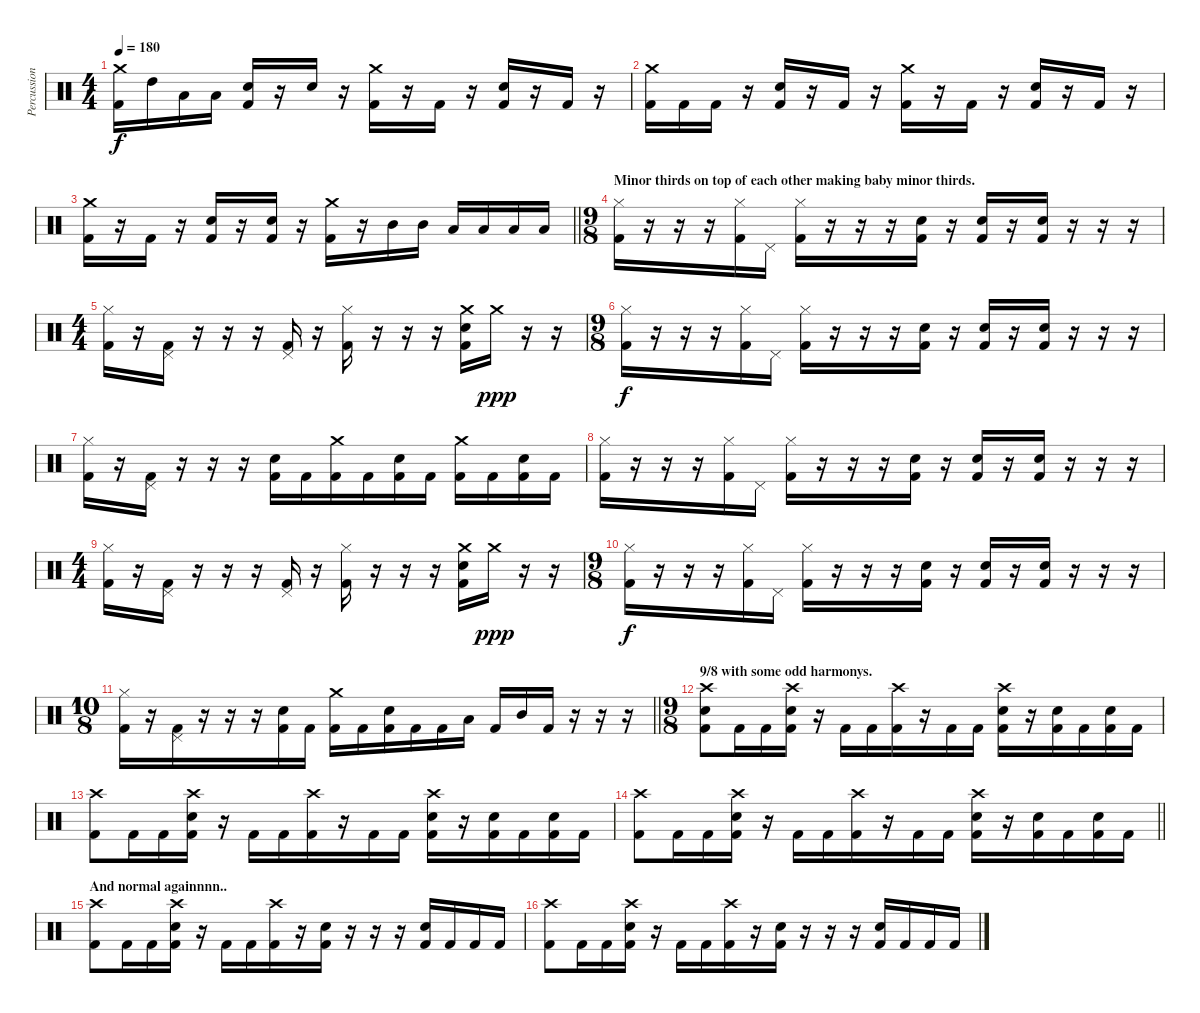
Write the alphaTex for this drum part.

\track ("Percussion" "Percussion") {instrument percussion}
\staff {score}
\articulation defaults
\ts (4 4)
\tempo 180
\clef neutral
\ks c
("Crash medium (hit)" "Kick (hit) 2").16{dy f} "High Tom (hit)".16 "Low Tom (hit)".16 "Low Floor Tom (hit)".16 ("Electric Snare (hit)" "Kick (hit) 2").16 r.16 "Electric Snare (hit)".16 r.16 ("Crash medium (hit)" "Kick (hit) 2").16 r.16 "Kick (hit) 2".16 r.16 ("Electric Snare (hit)" "Kick (hit) 2").16 r.16 "Kick (hit) 2".16 r.16 |
("Crash medium (hit)" "Kick (hit) 2").16 "Kick (hit) 2".16 "Kick (hit) 2".16 r.16 ("Electric Snare (hit)" "Kick (hit) 2").16 r.16 "Kick (hit) 2".16 r.16 ("Crash medium (hit)" "Kick (hit) 2").16 r.16 "Kick (hit) 2".16 r.16 ("Electric Snare (hit)" "Kick (hit) 2").16 r.16 "Kick (hit) 2".16 r.16 |
\barLineRight lightlight
("Crash medium (hit)" "Kick (hit) 2").16 r.16 "Kick (hit) 2".16 r.16 ("Electric Snare (hit)" "Kick (hit) 2").16 r.16 ("Electric Snare (hit)" "Kick (hit) 2").16 r.16 ("Crash medium (hit)" "Kick (hit) 2").16 r.16 "Mid Tom (hit)".16 "Mid Tom (hit)".16 "Low Tom (hit)".16 "Low Tom (hit)".16 "Low Floor Tom (hit)".16 "Low Floor Tom (hit)".16 |
\ts (9 8)
\section ("" "Minor thirds on top of each other making baby minor thirds.")
("Hi-Hat (closed)" "Kick (hit) 2").16 r.16 r.16 r.16 ("Hi-Hat (closed)" "Kick (hit) 2").16 "Pedal Hi-Hat (hit)".16 ("Hi-Hat (closed)" "Kick (hit) 2").16 r.16 r.16 r.16 ("Electric Snare (hit)" "Kick (hit) 2").16 r.16 ("Electric Snare (hit)" "Kick (hit) 2").16 r.16 ("Electric Snare (hit)" "Kick (hit) 2").16 r.16 r.16 r.16 |
\ts (4 4)
("Hi-Hat (closed)" "Kick (hit) 2").16 r.16 ("Pedal Hi-Hat (hit)" "Kick (hit) 2").16 r.16 r.16 r.16 ("Pedal Hi-Hat (hit)" "Kick (hit) 2").16 r.16 ("Hi-Hat (closed)" "Kick (hit) 2").16 r.16 r.16 r.16 ("Crash medium (hit)" "Electric Snare (hit)" "Kick (hit) 2").16 "Crash medium (hit)".16{dy ppp} r.16 r.16 |
\ts (9 8)
("Hi-Hat (closed)" "Kick (hit) 2").16{dy f} r.16 r.16 r.16 ("Hi-Hat (closed)" "Kick (hit) 2").16 "Pedal Hi-Hat (hit)".16 ("Hi-Hat (closed)" "Kick (hit) 2").16 r.16 r.16 r.16 ("Electric Snare (hit)" "Kick (hit) 2").16 r.16 ("Electric Snare (hit)" "Kick (hit) 2").16 r.16 ("Electric Snare (hit)" "Kick (hit) 2").16 r.16 r.16 r.16 |
("Hi-Hat (closed)" "Kick (hit) 2").16 r.16 ("Pedal Hi-Hat (hit)" "Kick (hit) 2").16 r.16 r.16 r.16 ("Electric Snare (hit)" "Kick (hit) 2").16 "Kick (hit) 2".16 ("Crash medium (hit)" "Kick (hit) 2").16 "Kick (hit) 2".16 ("Electric Snare (hit)" "Kick (hit) 2").16 "Kick (hit) 2".16 ("Crash medium (hit)" "Kick (hit) 2").16 "Kick (hit) 2".16 ("Electric Snare (hit)" "Kick (hit) 2").16 "Kick (hit) 2".16 |
("Hi-Hat (closed)" "Kick (hit) 2").16 r.16 r.16 r.16 ("Hi-Hat (closed)" "Kick (hit) 2").16 "Pedal Hi-Hat (hit)".16 ("Hi-Hat (closed)" "Kick (hit) 2").16 r.16 r.16 r.16 ("Electric Snare (hit)" "Kick (hit) 2").16 r.16 ("Electric Snare (hit)" "Kick (hit) 2").16 r.16 ("Electric Snare (hit)" "Kick (hit) 2").16 r.16 r.16 r.16 |
\ts (4 4)
("Hi-Hat (closed)" "Kick (hit) 2").16 r.16 ("Pedal Hi-Hat (hit)" "Kick (hit) 2").16 r.16 r.16 r.16 ("Pedal Hi-Hat (hit)" "Kick (hit) 2").16 r.16 ("Hi-Hat (closed)" "Kick (hit) 2").16 r.16 r.16 r.16 ("Crash medium (hit)" "Electric Snare (hit)" "Kick (hit) 2").16 "Crash medium (hit)".16{dy ppp} r.16 r.16 |
\ts (9 8)
("Hi-Hat (closed)" "Kick (hit) 2").16{dy f} r.16 r.16 r.16 ("Hi-Hat (closed)" "Kick (hit) 2").16 "Pedal Hi-Hat (hit)".16 ("Hi-Hat (closed)" "Kick (hit) 2").16 r.16 r.16 r.16 ("Electric Snare (hit)" "Kick (hit) 2").16 r.16 ("Electric Snare (hit)" "Kick (hit) 2").16 r.16 ("Electric Snare (hit)" "Kick (hit) 2").16 r.16 r.16 r.16 |
\ts (10 8)
\barLineRight lightlight
("Hi-Hat (closed)" "Kick (hit) 2").16 r.16 ("Pedal Hi-Hat (hit)" "Kick (hit) 2").16 r.16 r.16 r.16 ("Electric Snare (hit)" "Kick (hit) 2").16 "Kick (hit) 2".16 ("Crash medium (hit)" "Kick (hit) 2").16 "Kick (hit) 2".16 ("Electric Snare (hit)" "Kick (hit) 2").16 "Kick (hit) 2".16 "Kick (hit) 2".16 "Low Floor Tom (hit)".16 "Kick (hit) 2".16 "Mid Tom (hit)".16 "Kick (hit) 2".16 r.16 r.16 r.16 |
\ts (9 8)
\section ("" "9/8 with some odd harmonys.")
("Crash high (hit)" "Electric Snare (hit)" "Kick (hit) 2").8 "Kick (hit) 2".16 "Kick (hit) 2".16 ("Crash high (hit)" "Electric Snare (hit)" "Kick (hit) 2").16 r.16 "Kick (hit) 2".16 "Kick (hit) 2".16 ("Crash high (hit)" "Kick (hit) 2").16 r.16 "Kick (hit) 2".16 "Kick (hit) 2".16 ("Crash high (hit)" "Electric Snare (hit)" "Kick (hit) 2").16 r.16 ("Electric Snare (hit)" "Kick (hit) 2").16 "Kick (hit) 2".16 ("Electric Snare (hit)" "Kick (hit) 2").16 "Kick (hit) 2".16 |
("Crash high (hit)" "Kick (hit) 2").8 "Kick (hit) 2".16 "Kick (hit) 2".16 ("Crash high (hit)" "Electric Snare (hit)" "Kick (hit) 2").16 r.16 "Kick (hit) 2".16 "Kick (hit) 2".16 ("Crash high (hit)" "Kick (hit) 2").16 r.16 "Kick (hit) 2".16 "Kick (hit) 2".16 ("Crash high (hit)" "Electric Snare (hit)" "Kick (hit) 2").16 r.16 ("Electric Snare (hit)" "Kick (hit) 2").16 "Kick (hit) 2".16 ("Electric Snare (hit)" "Kick (hit) 2").16 "Kick (hit) 2".16 |
\barLineRight lightlight
("Crash high (hit)" "Kick (hit) 2").8 "Kick (hit) 2".16 "Kick (hit) 2".16 ("Crash high (hit)" "Electric Snare (hit)" "Kick (hit) 2").16 r.16 "Kick (hit) 2".16 "Kick (hit) 2".16 ("Crash high (hit)" "Kick (hit) 2").16 r.16 "Kick (hit) 2".16 "Kick (hit) 2".16 ("Crash high (hit)" "Electric Snare (hit)" "Kick (hit) 2").16 r.16 ("Electric Snare (hit)" "Kick (hit) 2").16 "Kick (hit) 2".16 ("Electric Snare (hit)" "Kick (hit) 2").16 "Kick (hit) 2".16 |
\section ("" "And normal againnnn..")
("Crash high (hit)" "Kick (hit) 2").8 "Kick (hit) 2".16 "Kick (hit) 2".16 ("Crash high (hit)" "Electric Snare (hit)" "Kick (hit) 2").16 r.16 "Kick (hit) 2".16 "Kick (hit) 2".16 ("Crash high (hit)" "Kick (hit) 2").16 r.16 ("Electric Snare (hit)" "Kick (hit) 2").16 r.16 r.16 r.16 ("Electric Snare (hit)" "Kick (hit) 2").16 "Kick (hit) 2".16 "Kick (hit) 2".16 "Kick (hit) 2".16 |
("Crash high (hit)" "Kick (hit) 2").8 "Kick (hit) 2".16 "Kick (hit) 2".16 ("Crash high (hit)" "Electric Snare (hit)" "Kick (hit) 2").16 r.16 "Kick (hit) 2".16 "Kick (hit) 2".16 ("Crash high (hit)" "Kick (hit) 2").16 r.16 ("Electric Snare (hit)" "Kick (hit) 2").16 r.16 r.16 r.16 ("Electric Snare (hit)" "Kick (hit) 2").16 "Kick (hit) 2".16 "Kick (hit) 2".16 "Kick (hit) 2".16
